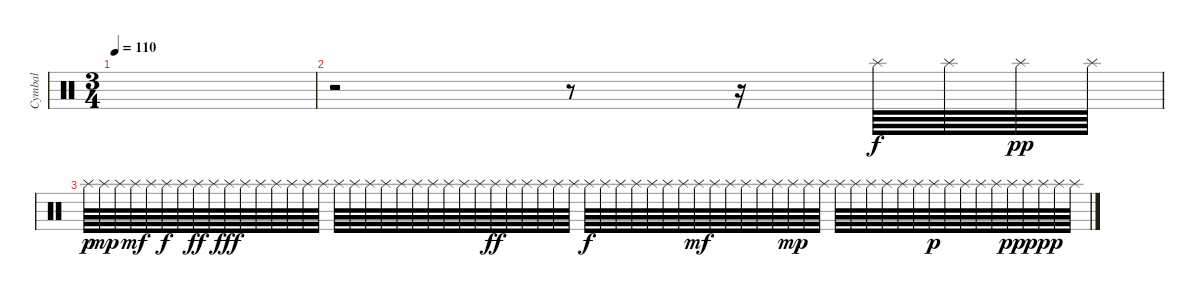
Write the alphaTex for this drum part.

\track ("Cymbal" "Cymbal") {mute instrument percussion}
\staff {score}
\articulation defaults
\ts (3 4)
\tempo 110
\clef neutral
\ks c
|
r.2 r.8 r.16 "Splash (hit)".64 "Splash (hit)".64 "Splash (hit)".64{dy pp} "Splash (hit)".64 |
"Splash (hit)".64{dy p} "Splash (hit)".64{dy mp} "Splash (hit)".64 "Splash (hit)".64{dy mf} "Splash (hit)".64 "Splash (hit)".64{dy f} "Splash (hit)".64 "Splash (hit)".64{dy ff} "Splash (hit)".64 "Splash (hit)".64{dy fff} "Splash (hit)".64 "Splash (hit)".64 "Splash (hit)".64 "Splash (hit)".64 "Splash (hit)".64 "Splash (hit)".64 "Splash (hit)".64 "Splash (hit)".64 "Splash (hit)".64 "Splash (hit)".64 "Splash (hit)".64 "Splash (hit)".64 "Splash (hit)".64 "Splash (hit)".64 "Splash (hit)".64 "Splash (hit)".64 "Splash (hit)".64{dy ff} "Splash (hit)".64 "Splash (hit)".64 "Splash (hit)".64 "Splash (hit)".64 "Splash (hit)".64 "Splash (hit)".64{dy f} "Splash (hit)".64 "Splash (hit)".64 "Splash (hit)".64 "Splash (hit)".64 "Splash (hit)".64 "Splash (hit)".64 "Splash (hit)".64{dy mf} "Splash (hit)".64 "Splash (hit)".64 "Splash (hit)".64 "Splash (hit)".64 "Splash (hit)".64 "Splash (hit)".64{dy mp} "Splash (hit)".64 "Splash (hit)".64 "Splash (hit)".64 "Splash (hit)".64 "Splash (hit)".64 "Splash (hit)".64 "Splash (hit)".64 "Splash (hit)".64 "Splash (hit)".64{dy p} "Splash (hit)".64 "Splash (hit)".64 "Splash (hit)".64 "Splash (hit)".64 "Splash (hit)".64{dy pp} "Splash (hit)".64 "Splash (hit)".64{dy ppp} "Splash (hit)".64 "Splash (hit)".64
